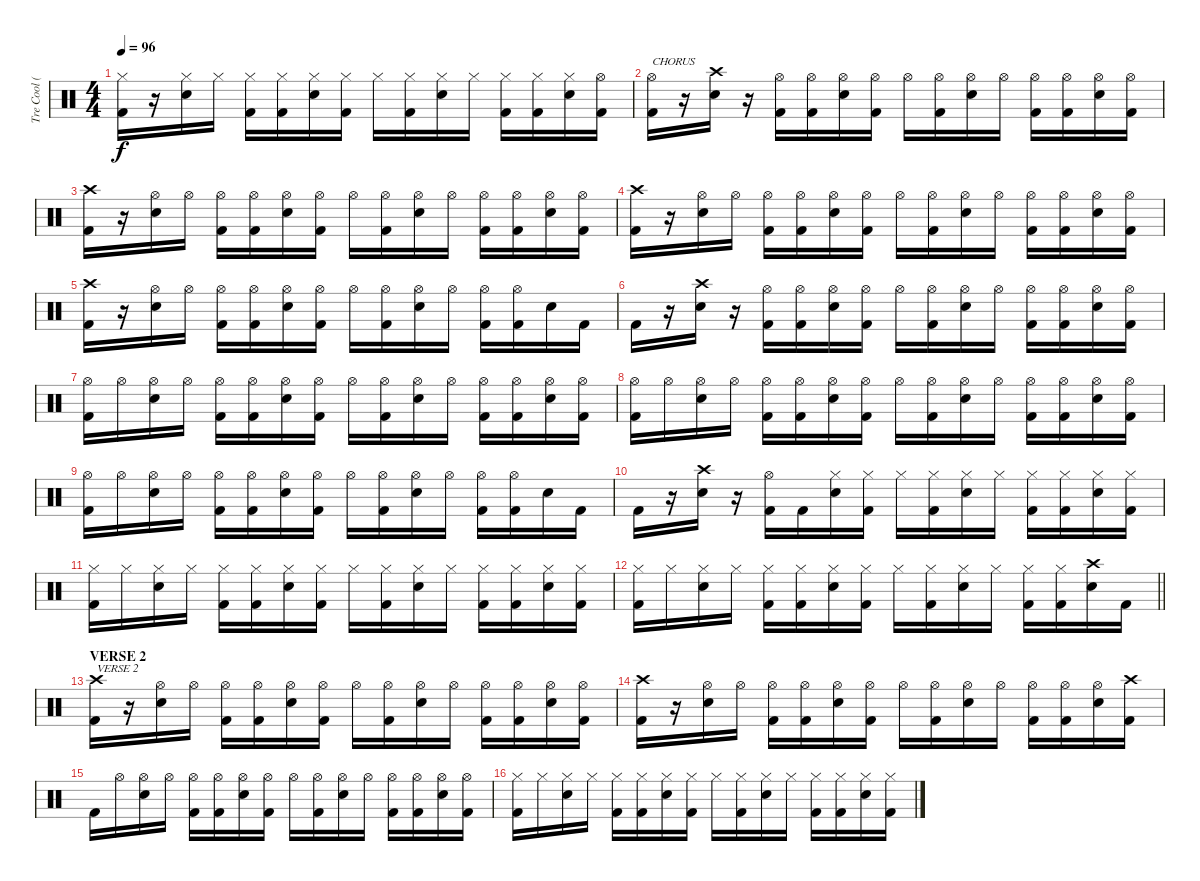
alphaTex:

\track ("Tre Cool (Drums)" "Tre Cool (") {instrument percussion}
\staff {score}
\articulation defaults
\ts (4 4)
\tempo 96
\clef neutral
\ks c
("Hi-Hat (closed)" "Kick (hit) 2").16{dy f} r.16 ("Hi-Hat (closed)" "Electric Snare (hit)").16 "Hi-Hat (closed)".16 ("Hi-Hat (closed)" "Kick (hit) 2").16 ("Hi-Hat (closed)" "Kick (hit) 2").16 ("Hi-Hat (closed)" "Electric Snare (hit)").16 ("Hi-Hat (closed)" "Kick (hit) 2").16 "Hi-Hat (closed)".16 ("Hi-Hat (closed)" "Kick (hit) 2").16 ("Hi-Hat (closed)" "Electric Snare (hit)").16 "Hi-Hat (closed)".16 ("Hi-Hat (closed)" "Kick (hit) 2").16 ("Hi-Hat (closed)" "Kick (hit) 2").16 ("Hi-Hat (closed)" "Electric Snare (hit)").16 ("Hi-Hat (open)" "Kick (hit) 2").16 |
("Hi-Hat (open)" "Kick (hit) 2").16{txt "CHORUS"} r.16 ("Crash high (hit)" "Electric Snare (hit)").16 r.16 ("Hi-Hat (open)" "Kick (hit) 2").16 ("Hi-Hat (open)" "Kick (hit) 2").16 ("Hi-Hat (open)" "Electric Snare (hit)").16 ("Hi-Hat (open)" "Kick (hit) 2").16 "Hi-Hat (open)".16 ("Hi-Hat (open)" "Kick (hit) 2").16 ("Hi-Hat (open)" "Electric Snare (hit)").16 "Hi-Hat (open)".16 ("Hi-Hat (open)" "Kick (hit) 2").16 ("Hi-Hat (open)" "Kick (hit) 2").16 ("Hi-Hat (open)" "Electric Snare (hit)").16 ("Hi-Hat (open)" "Kick (hit) 2").16 |
("Crash high (hit)" "Kick (hit) 2").16 r.16 ("Hi-Hat (open)" "Electric Snare (hit)").16 "Hi-Hat (open)".16 ("Hi-Hat (open)" "Kick (hit) 2").16 ("Hi-Hat (open)" "Kick (hit) 2").16 ("Hi-Hat (open)" "Electric Snare (hit)").16 ("Hi-Hat (open)" "Kick (hit) 2").16 "Hi-Hat (open)".16 ("Hi-Hat (open)" "Kick (hit) 2").16 ("Hi-Hat (open)" "Electric Snare (hit)").16 "Hi-Hat (open)".16 ("Hi-Hat (open)" "Kick (hit) 2").16 ("Hi-Hat (open)" "Kick (hit) 2").16 ("Hi-Hat (open)" "Electric Snare (hit)").16 ("Hi-Hat (open)" "Kick (hit) 2").16 |
("Crash high (hit)" "Kick (hit) 2").16 r.16 ("Hi-Hat (open)" "Electric Snare (hit)").16 "Hi-Hat (open)".16 ("Hi-Hat (open)" "Kick (hit) 2").16 ("Hi-Hat (open)" "Kick (hit) 2").16 ("Hi-Hat (open)" "Electric Snare (hit)").16 ("Hi-Hat (open)" "Kick (hit) 2").16 "Hi-Hat (open)".16 ("Hi-Hat (open)" "Kick (hit) 2").16 ("Hi-Hat (open)" "Electric Snare (hit)").16 "Hi-Hat (open)".16 ("Hi-Hat (open)" "Kick (hit) 2").16 ("Hi-Hat (open)" "Kick (hit) 2").16 ("Hi-Hat (open)" "Electric Snare (hit)").16 ("Hi-Hat (open)" "Kick (hit) 2").16 |
("Crash high (hit)" "Kick (hit) 2").16 r.16 ("Hi-Hat (open)" "Electric Snare (hit)").16 "Hi-Hat (open)".16 ("Hi-Hat (open)" "Kick (hit) 2").16 ("Hi-Hat (open)" "Kick (hit) 2").16 ("Hi-Hat (open)" "Electric Snare (hit)").16 ("Hi-Hat (open)" "Kick (hit) 2").16 "Hi-Hat (open)".16 ("Hi-Hat (open)" "Kick (hit) 2").16 ("Hi-Hat (open)" "Electric Snare (hit)").16 "Hi-Hat (open)".16 ("Hi-Hat (open)" "Kick (hit) 2").16 ("Hi-Hat (open)" "Kick (hit) 2").16 "Electric Snare (hit)".16 "Kick (hit) 2".16 |
"Kick (hit) 2".16 r.16 ("Crash high (hit)" "Electric Snare (hit)").16 r.16 ("Hi-Hat (open)" "Kick (hit) 2").16 ("Hi-Hat (open)" "Kick (hit) 2").16 ("Hi-Hat (open)" "Electric Snare (hit)").16 ("Hi-Hat (open)" "Kick (hit) 2").16 "Hi-Hat (open)".16 ("Hi-Hat (open)" "Kick (hit) 2").16 ("Hi-Hat (open)" "Electric Snare (hit)").16 "Hi-Hat (open)".16 ("Hi-Hat (open)" "Kick (hit) 2").16 ("Hi-Hat (open)" "Kick (hit) 2").16 ("Hi-Hat (open)" "Electric Snare (hit)").16 ("Hi-Hat (open)" "Kick (hit) 2").16 |
("Hi-Hat (open)" "Kick (hit) 2").16 "Hi-Hat (open)".16 ("Hi-Hat (open)" "Electric Snare (hit)").16 "Hi-Hat (open)".16 ("Hi-Hat (open)" "Kick (hit) 2").16 ("Hi-Hat (open)" "Kick (hit) 2").16 ("Hi-Hat (open)" "Electric Snare (hit)").16 ("Hi-Hat (open)" "Kick (hit) 2").16 "Hi-Hat (open)".16 ("Hi-Hat (open)" "Kick (hit) 2").16 ("Hi-Hat (open)" "Electric Snare (hit)").16 "Hi-Hat (open)".16 ("Hi-Hat (open)" "Kick (hit) 2").16 ("Hi-Hat (open)" "Kick (hit) 2").16 ("Hi-Hat (open)" "Electric Snare (hit)").16 ("Hi-Hat (open)" "Kick (hit) 2").16 |
("Hi-Hat (open)" "Kick (hit) 2").16 "Hi-Hat (open)".16 ("Hi-Hat (open)" "Electric Snare (hit)").16 "Hi-Hat (open)".16 ("Hi-Hat (open)" "Kick (hit) 2").16 ("Hi-Hat (open)" "Kick (hit) 2").16 ("Hi-Hat (open)" "Electric Snare (hit)").16 ("Hi-Hat (open)" "Kick (hit) 2").16 "Hi-Hat (open)".16 ("Hi-Hat (open)" "Kick (hit) 2").16 ("Hi-Hat (open)" "Electric Snare (hit)").16 "Hi-Hat (open)".16 ("Hi-Hat (open)" "Kick (hit) 2").16 ("Hi-Hat (open)" "Kick (hit) 2").16 ("Hi-Hat (open)" "Electric Snare (hit)").16 ("Hi-Hat (open)" "Kick (hit) 2").16 |
("Hi-Hat (open)" "Kick (hit) 2").16 "Hi-Hat (open)".16 ("Hi-Hat (open)" "Electric Snare (hit)").16 "Hi-Hat (open)".16 ("Hi-Hat (open)" "Kick (hit) 2").16 ("Hi-Hat (open)" "Kick (hit) 2").16 ("Hi-Hat (open)" "Electric Snare (hit)").16 ("Hi-Hat (open)" "Kick (hit) 2").16 "Hi-Hat (open)".16 ("Hi-Hat (open)" "Kick (hit) 2").16 ("Hi-Hat (open)" "Electric Snare (hit)").16 "Hi-Hat (open)".16 ("Hi-Hat (open)" "Kick (hit) 2").16 ("Hi-Hat (open)" "Kick (hit) 2").16 "Electric Snare (hit)".16 "Kick (hit) 2".16 |
"Kick (hit) 2".16 r.16 ("Crash high (hit)" "Electric Snare (hit)").16 r.16 ("Hi-Hat (open)" "Kick (hit) 2").16 "Kick (hit) 2".16 ("Hi-Hat (closed)" "Electric Snare (hit)").16 ("Hi-Hat (closed)" "Kick (hit) 2").16 "Hi-Hat (closed)".16 ("Hi-Hat (closed)" "Kick (hit) 2").16 ("Hi-Hat (closed)" "Electric Snare (hit)").16 "Hi-Hat (closed)".16 ("Hi-Hat (closed)" "Kick (hit) 2").16 ("Hi-Hat (closed)" "Kick (hit) 2").16 ("Hi-Hat (closed)" "Electric Snare (hit)").16 ("Hi-Hat (closed)" "Kick (hit) 2").16 |
("Hi-Hat (closed)" "Kick (hit) 2").16 "Hi-Hat (closed)".16 ("Hi-Hat (closed)" "Electric Snare (hit)").16 "Hi-Hat (closed)".16 ("Hi-Hat (closed)" "Kick (hit) 2").16 ("Hi-Hat (closed)" "Kick (hit) 2").16 ("Hi-Hat (closed)" "Electric Snare (hit)").16 ("Hi-Hat (closed)" "Kick (hit) 2").16 "Hi-Hat (closed)".16 ("Hi-Hat (closed)" "Kick (hit) 2").16 ("Hi-Hat (closed)" "Electric Snare (hit)").16 "Hi-Hat (closed)".16 ("Hi-Hat (closed)" "Kick (hit) 2").16 ("Hi-Hat (closed)" "Kick (hit) 2").16 ("Hi-Hat (closed)" "Electric Snare (hit)").16 ("Hi-Hat (closed)" "Kick (hit) 2").16 |
\barLineRight lightlight
("Hi-Hat (closed)" "Kick (hit) 2").16 "Hi-Hat (closed)".16 ("Hi-Hat (closed)" "Electric Snare (hit)").16 "Hi-Hat (closed)".16 ("Hi-Hat (closed)" "Kick (hit) 2").16 ("Hi-Hat (closed)" "Kick (hit) 2").16 ("Hi-Hat (closed)" "Electric Snare (hit)").16 ("Hi-Hat (closed)" "Kick (hit) 2").16 "Hi-Hat (closed)".16 ("Hi-Hat (closed)" "Kick (hit) 2").16 ("Hi-Hat (closed)" "Electric Snare (hit)").16 "Hi-Hat (closed)".16 ("Hi-Hat (closed)" "Kick (hit) 2").16 ("Hi-Hat (closed)" "Kick (hit) 2").16 ("Crash high (hit)" "Electric Snare (hit)").16 "Kick (hit) 2".16 |
\section ("" "VERSE 2")
("Crash high (hit)" "Kick (hit) 2").16{txt "VERSE 2"} r.16 ("Hi-Hat (open)" "Electric Snare (hit)").16 "Hi-Hat (open)".16 ("Hi-Hat (open)" "Kick (hit) 2").16 ("Hi-Hat (open)" "Kick (hit) 2").16 ("Hi-Hat (open)" "Electric Snare (hit)").16 ("Hi-Hat (open)" "Kick (hit) 2").16 "Hi-Hat (open)".16 ("Hi-Hat (open)" "Kick (hit) 2").16 ("Hi-Hat (open)" "Electric Snare (hit)").16 "Hi-Hat (open)".16 ("Hi-Hat (open)" "Kick (hit) 2").16 ("Hi-Hat (open)" "Kick (hit) 2").16 ("Hi-Hat (open)" "Electric Snare (hit)").16 ("Hi-Hat (open)" "Kick (hit) 2").16 |
("Crash high (hit)" "Kick (hit) 2").16 r.16 ("Hi-Hat (open)" "Electric Snare (hit)").16 "Hi-Hat (open)".16 ("Hi-Hat (open)" "Kick (hit) 2").16 ("Hi-Hat (open)" "Kick (hit) 2").16 ("Hi-Hat (open)" "Electric Snare (hit)").16 ("Hi-Hat (open)" "Kick (hit) 2").16 "Hi-Hat (open)".16 ("Hi-Hat (open)" "Kick (hit) 2").16 ("Hi-Hat (open)" "Electric Snare (hit)").16 "Hi-Hat (open)".16 ("Hi-Hat (open)" "Kick (hit) 2").16 ("Hi-Hat (open)" "Kick (hit) 2").16 ("Hi-Hat (open)" "Electric Snare (hit)").16 ("Crash high (hit)" "Kick (hit) 2").16 |
"Kick (hit) 2".16 "Hi-Hat (open)".16 ("Hi-Hat (open)" "Electric Snare (hit)").16 "Hi-Hat (open)".16 ("Hi-Hat (open)" "Kick (hit) 2").16 ("Hi-Hat (open)" "Kick (hit) 2").16 ("Hi-Hat (open)" "Electric Snare (hit)").16 ("Hi-Hat (open)" "Kick (hit) 2").16 "Hi-Hat (open)".16 ("Hi-Hat (open)" "Kick (hit) 2").16 ("Hi-Hat (open)" "Electric Snare (hit)").16 "Hi-Hat (open)".16 ("Hi-Hat (open)" "Kick (hit) 2").16 ("Hi-Hat (open)" "Kick (hit) 2").16 ("Hi-Hat (open)" "Electric Snare (hit)").16 ("Hi-Hat (open)" "Kick (hit) 2").16 |
("Hi-Hat (closed)" "Kick (hit) 2").16 "Hi-Hat (closed)".16 ("Hi-Hat (closed)" "Electric Snare (hit)").16 "Hi-Hat (closed)".16 ("Hi-Hat (closed)" "Kick (hit) 2").16 ("Hi-Hat (closed)" "Kick (hit) 2").16 ("Hi-Hat (closed)" "Electric Snare (hit)").16 ("Hi-Hat (closed)" "Kick (hit) 2").16 "Hi-Hat (closed)".16 ("Hi-Hat (closed)" "Kick (hit) 2").16 ("Hi-Hat (closed)" "Electric Snare (hit)").16 "Hi-Hat (closed)".16 ("Hi-Hat (closed)" "Kick (hit) 2").16 ("Hi-Hat (closed)" "Kick (hit) 2").16 ("Hi-Hat (closed)" "Electric Snare (hit)").16 ("Hi-Hat (closed)" "Kick (hit) 2").16
